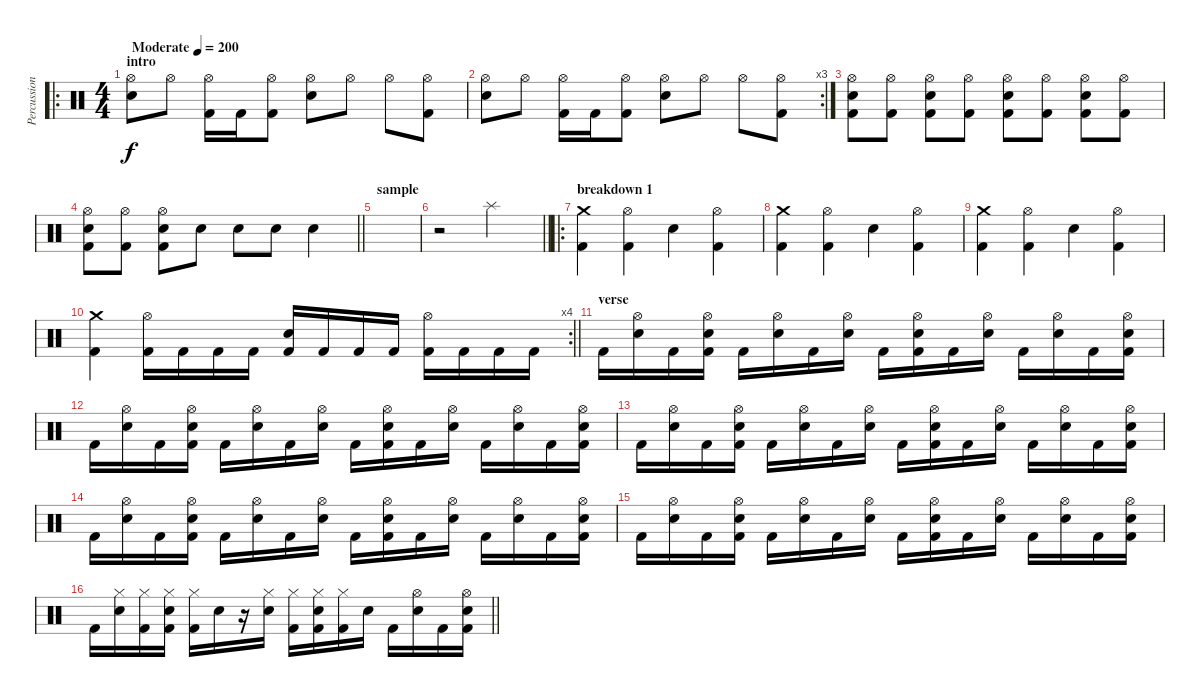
\track ("Percussion" "Percussion") {instrument percussion}
\staff {score}
\articulation defaults
\ro
\ts (4 4)
\section ("" "intro")
\tempo (200 "Moderate")
\clef neutral
\ks c
("Hi-Hat (open)" "Snare (hit) 2").8{dy f} "Hi-Hat (open)".8 ("Hi-Hat (open)" "Kick (hit) 2").16 "Kick (hit) 2".16 ("Hi-Hat (open)" "Kick (hit) 2").8 ("Hi-Hat (open)" "Snare (hit) 2").8 "Hi-Hat (open)".8 "Hi-Hat (open)".8 ("Hi-Hat (open)" "Kick (hit) 2").8 |
\rc 3
("Hi-Hat (open)" "Snare (hit) 2").8 "Hi-Hat (open)".8 ("Hi-Hat (open)" "Kick (hit) 2").16 "Kick (hit) 2".16 ("Hi-Hat (open)" "Kick (hit) 2").8 ("Hi-Hat (open)" "Snare (hit) 2").8 "Hi-Hat (open)".8 "Hi-Hat (open)".8 ("Hi-Hat (open)" "Kick (hit) 2").8 |
("Hi-Hat (open)" "Snare (hit) 2" "Kick (hit) 2").8 ("Hi-Hat (open)" "Kick (hit) 2").8 ("Hi-Hat (open)" "Snare (hit) 2" "Kick (hit) 2").8 ("Hi-Hat (open)" "Kick (hit) 2").8 ("Hi-Hat (open)" "Snare (hit) 2" "Kick (hit) 2").8 ("Hi-Hat (open)" "Kick (hit) 2").8 ("Hi-Hat (open)" "Snare (hit) 2" "Kick (hit) 2").8 ("Hi-Hat (open)" "Kick (hit) 2").8 |
\barLineRight lightlight
("Hi-Hat (open)" "Snare (hit) 2" "Kick (hit) 2").8 ("Hi-Hat (open)" "Kick (hit) 2").8 ("Hi-Hat (open)" "Snare (hit) 2" "Kick (hit) 2").8 "Snare (hit) 2".8 "Snare (hit) 2".8 "Snare (hit) 2".8 "Snare (hit) 2".4 |
\section ("" "sample")
|
\barLineRight lightlight
r.2 "Splash (hit)".2 |
\ro
\section ("" "breakdown 1")
("Crash medium (hit)" "Kick (hit) 2").4 ("Hi-Hat (open)" "Kick (hit) 2").4 "Snare (hit) 2".4 ("Hi-Hat (open)" "Kick (hit) 2").4 |
("Crash medium (hit)" "Kick (hit) 2").4 ("Hi-Hat (open)" "Kick (hit) 2").4 "Snare (hit) 2".4 ("Hi-Hat (open)" "Kick (hit) 2").4 |
("Crash medium (hit)" "Kick (hit) 2").4 ("Hi-Hat (open)" "Kick (hit) 2").4 "Snare (hit) 2".4 ("Hi-Hat (open)" "Kick (hit) 2").4 |
\rc 4
\barLineRight lightlight
("Crash medium (hit)" "Kick (hit) 2").4 ("Hi-Hat (open)" "Kick (hit) 2").16 "Kick (hit) 2".16 "Kick (hit) 2".16 "Kick (hit) 2".16 ("Snare (hit) 2" "Kick (hit) 2").16 "Kick (hit) 2".16 "Kick (hit) 2".16 "Kick (hit) 2".16 ("Hi-Hat (open)" "Kick (hit) 2").16 "Kick (hit) 2".16 "Kick (hit) 2".16 "Kick (hit) 2".16 |
\section ("" "verse")
"Kick (hit) 2".16 ("Hi-Hat (open)" "Snare (hit) 2").16 "Kick (hit) 2".16 ("Hi-Hat (open)" "Snare (hit) 2" "Kick (hit) 2").16 "Kick (hit) 2".16 ("Hi-Hat (open)" "Snare (hit) 2").16 "Kick (hit) 2".16 ("Hi-Hat (open)" "Snare (hit) 2").16 "Kick (hit) 2".16 ("Hi-Hat (open)" "Snare (hit) 2" "Kick (hit) 2").16 "Kick (hit) 2".16 ("Hi-Hat (open)" "Snare (hit) 2").16 "Kick (hit) 2".16 ("Hi-Hat (open)" "Snare (hit) 2").16 "Kick (hit) 2".16 ("Hi-Hat (open)" "Snare (hit) 2" "Kick (hit) 2").16 |
"Kick (hit) 2".16 ("Hi-Hat (open)" "Snare (hit) 2").16 "Kick (hit) 2".16 ("Hi-Hat (open)" "Snare (hit) 2" "Kick (hit) 2").16 "Kick (hit) 2".16 ("Hi-Hat (open)" "Snare (hit) 2").16 "Kick (hit) 2".16 ("Hi-Hat (open)" "Snare (hit) 2").16 "Kick (hit) 2".16 ("Hi-Hat (open)" "Snare (hit) 2" "Kick (hit) 2").16 "Kick (hit) 2".16 ("Hi-Hat (open)" "Snare (hit) 2").16 "Kick (hit) 2".16 ("Hi-Hat (open)" "Snare (hit) 2").16 "Kick (hit) 2".16 ("Hi-Hat (open)" "Snare (hit) 2" "Kick (hit) 2").16 |
"Kick (hit) 2".16 ("Hi-Hat (open)" "Snare (hit) 2").16 "Kick (hit) 2".16 ("Hi-Hat (open)" "Snare (hit) 2" "Kick (hit) 2").16 "Kick (hit) 2".16 ("Hi-Hat (open)" "Snare (hit) 2").16 "Kick (hit) 2".16 ("Hi-Hat (open)" "Snare (hit) 2").16 "Kick (hit) 2".16 ("Hi-Hat (open)" "Snare (hit) 2" "Kick (hit) 2").16 "Kick (hit) 2".16 ("Hi-Hat (open)" "Snare (hit) 2").16 "Kick (hit) 2".16 ("Hi-Hat (open)" "Snare (hit) 2").16 "Kick (hit) 2".16 ("Hi-Hat (open)" "Snare (hit) 2" "Kick (hit) 2").16 |
"Kick (hit) 2".16 ("Hi-Hat (open)" "Snare (hit) 2").16 "Kick (hit) 2".16 ("Hi-Hat (open)" "Snare (hit) 2" "Kick (hit) 2").16 "Kick (hit) 2".16 ("Hi-Hat (open)" "Snare (hit) 2").16 "Kick (hit) 2".16 ("Hi-Hat (open)" "Snare (hit) 2").16 "Kick (hit) 2".16 ("Hi-Hat (open)" "Snare (hit) 2" "Kick (hit) 2").16 "Kick (hit) 2".16 ("Hi-Hat (open)" "Snare (hit) 2").16 "Kick (hit) 2".16 ("Hi-Hat (open)" "Snare (hit) 2").16 "Kick (hit) 2".16 ("Hi-Hat (open)" "Snare (hit) 2" "Kick (hit) 2").16 |
"Kick (hit) 2".16 ("Hi-Hat (open)" "Snare (hit) 2").16 "Kick (hit) 2".16 ("Hi-Hat (open)" "Snare (hit) 2" "Kick (hit) 2").16 "Kick (hit) 2".16 ("Hi-Hat (open)" "Snare (hit) 2").16 "Kick (hit) 2".16 ("Hi-Hat (open)" "Snare (hit) 2").16 "Kick (hit) 2".16 ("Hi-Hat (open)" "Snare (hit) 2" "Kick (hit) 2").16 "Kick (hit) 2".16 ("Hi-Hat (open)" "Snare (hit) 2").16 "Kick (hit) 2".16 ("Hi-Hat (open)" "Snare (hit) 2").16 "Kick (hit) 2".16 ("Hi-Hat (open)" "Snare (hit) 2" "Kick (hit) 2").16 |
\barLineRight lightlight "Kick (hit) 2".16
("Hi-Hat (closed)" "Snare (hit) 2").16 ("Hi-Hat (closed)" "Kick (hit) 2").16 ("Hi-Hat (closed)" "Snare (hit) 2" "Kick (hit) 2").16 ("Hi-Hat (closed)" "Kick (hit) 2").16 "Snare (hit) 2".16 r.16 ("Hi-Hat (closed)" "Snare (hit) 2").16 ("Hi-Hat (closed)" "Kick (hit) 2").16 ("Hi-Hat (closed)" "Snare (hit) 2" "Kick (hit) 2").16 ("Hi-Hat (closed)" "Kick (hit) 2").16 "Snare (hit) 2".16 "Kick (hit) 2".16 ("Hi-Hat (open)" "Snare (hit) 2").16 "Kick (hit) 2".16 ("Hi-Hat (open)" "Snare (hit) 2" "Kick (hit) 2").16
